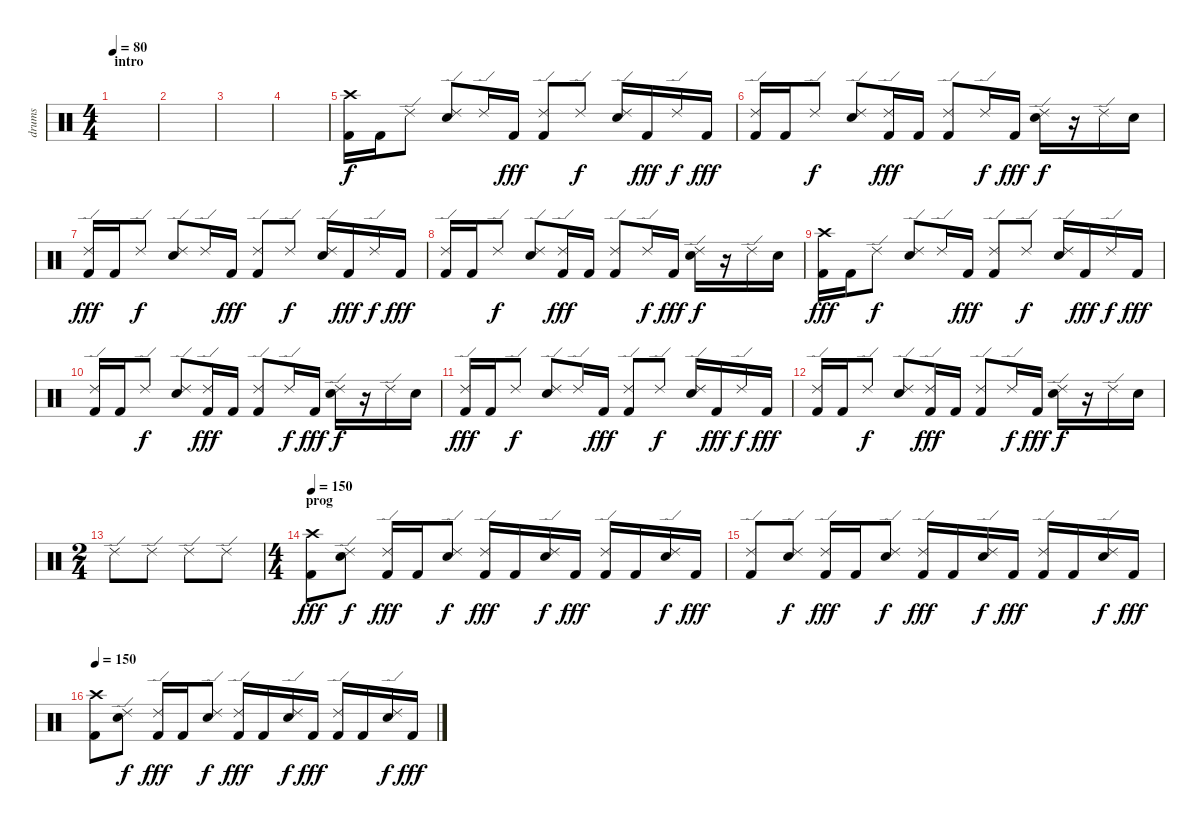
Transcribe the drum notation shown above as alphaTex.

\track ("drums" "drums") {instrument percussion}
\staff {score}
\articulation defaults
\ts (4 4)
\section ("" "intro")
\tempo 80
\clef neutral
\ks c
|
|
|
|
("Crash high (hit)" "Kick (hit) 2").16 "Kick (hit) 2".16 "Ride (edge) 2".8{dy f} ("Ride (edge) 2" "Snare (hit) 2").8 "Ride (edge) 2".16 "Kick (hit) 2".16{dy fff} ("Ride (edge) 2" "Kick (hit) 2").8 "Ride (edge) 2".8{dy f} ("Ride (edge) 2" "Snare (hit) 2").16 "Kick (hit) 2".16{dy fff} "Ride (edge) 2".16{dy f} "Kick (hit) 2".16{dy fff} |
("Ride (edge) 2" "Kick (hit) 2").16 "Kick (hit) 2".16 "Ride (edge) 2".8{dy f} ("Ride (edge) 2" "Snare (hit) 2").8 ("Ride (edge) 2" "Kick (hit) 2").16{dy fff} "Kick (hit) 2".16 ("Ride (edge) 2" "Kick (hit) 2").8 "Ride (edge) 2".16{dy f} "Kick (hit) 2".16{dy fff} ("Ride (edge) 2" "Snare (hit) 2").16{dy f} r.16 "Ride (edge) 2".16 "Snare (hit) 2".16 |
("Ride (edge) 2" "Kick (hit) 2").16{dy fff} "Kick (hit) 2".16 "Ride (edge) 2".8{dy f} ("Ride (edge) 2" "Snare (hit) 2").8 "Ride (edge) 2".16 "Kick (hit) 2".16{dy fff} ("Ride (edge) 2" "Kick (hit) 2").8 "Ride (edge) 2".8{dy f} ("Ride (edge) 2" "Snare (hit) 2").16 "Kick (hit) 2".16{dy fff} "Ride (edge) 2".16{dy f} "Kick (hit) 2".16{dy fff} |
("Ride (edge) 2" "Kick (hit) 2").16 "Kick (hit) 2".16 "Ride (edge) 2".8{dy f} ("Ride (edge) 2" "Snare (hit) 2").8 ("Ride (edge) 2" "Kick (hit) 2").16{dy fff} "Kick (hit) 2".16 ("Ride (edge) 2" "Kick (hit) 2").8 "Ride (edge) 2".16{dy f} "Kick (hit) 2".16{dy fff} ("Ride (edge) 2" "Snare (hit) 2").16{dy f} r.16 "Ride (edge) 2".16 "Snare (hit) 2".16 |
("Crash high (hit)" "Kick (hit) 2").16{dy fff} "Kick (hit) 2".16 "Ride (edge) 2".8{dy f} ("Ride (edge) 2" "Snare (hit) 2").8 "Ride (edge) 2".16 "Kick (hit) 2".16{dy fff} ("Ride (edge) 2" "Kick (hit) 2").8 "Ride (edge) 2".8{dy f} ("Ride (edge) 2" "Snare (hit) 2").16 "Kick (hit) 2".16{dy fff} "Ride (edge) 2".16{dy f} "Kick (hit) 2".16{dy fff} |
("Ride (edge) 2" "Kick (hit) 2").16 "Kick (hit) 2".16 "Ride (edge) 2".8{dy f} ("Ride (edge) 2" "Snare (hit) 2").8 ("Ride (edge) 2" "Kick (hit) 2").16{dy fff} "Kick (hit) 2".16 ("Ride (edge) 2" "Kick (hit) 2").8 "Ride (edge) 2".16{dy f} "Kick (hit) 2".16{dy fff} ("Ride (edge) 2" "Snare (hit) 2").16{dy f} r.16 "Ride (edge) 2".16 "Snare (hit) 2".16 |
("Ride (edge) 2" "Kick (hit) 2").16{dy fff} "Kick (hit) 2".16 "Ride (edge) 2".8{dy f} ("Ride (edge) 2" "Snare (hit) 2").8 "Ride (edge) 2".16 "Kick (hit) 2".16{dy fff} ("Ride (edge) 2" "Kick (hit) 2").8 "Ride (edge) 2".8{dy f} ("Ride (edge) 2" "Snare (hit) 2").16 "Kick (hit) 2".16{dy fff} "Ride (edge) 2".16{dy f} "Kick (hit) 2".16{dy fff} |
("Ride (edge) 2" "Kick (hit) 2").16 "Kick (hit) 2".16 "Ride (edge) 2".8{dy f} ("Ride (edge) 2" "Snare (hit) 2").8 ("Ride (edge) 2" "Kick (hit) 2").16{dy fff} "Kick (hit) 2".16 ("Ride (edge) 2" "Kick (hit) 2").8 "Ride (edge) 2".16{dy f} "Kick (hit) 2".16{dy fff} ("Ride (edge) 2" "Snare (hit) 2").16{dy f} r.16 "Ride (edge) 2".16 "Snare (hit) 2".16 |
\ts (2 4)
"Ride (edge) 2".8 "Ride (edge) 2".8 "Ride (edge) 2".8 "Ride (edge) 2".8 |
\ts (4 4)
\section ("" "prog")
\tempo 150
("Crash high (hit)" "Kick (hit) 2").8{dy fff} ("Ride (edge) 2" "Snare (hit) 2").8{dy f} ("Ride (edge) 2" "Kick (hit) 2").16{dy fff} "Kick (hit) 2".16 ("Ride (edge) 2" "Snare (hit) 2").8{dy f} ("Ride (edge) 2" "Kick (hit) 2").16{dy fff} "Kick (hit) 2".16 ("Ride (edge) 2" "Snare (hit) 2").16{dy f} "Kick (hit) 2".16{dy fff} ("Ride (edge) 2" "Kick (hit) 2").16 "Kick (hit) 2".16 ("Ride (edge) 2" "Snare (hit) 2").16{dy f} "Kick (hit) 2".16{dy fff} |
("Ride (edge) 2" "Kick (hit) 2").8 ("Ride (edge) 2" "Snare (hit) 2").8{dy f} ("Ride (edge) 2" "Kick (hit) 2").16{dy fff} "Kick (hit) 2".16 ("Ride (edge) 2" "Snare (hit) 2").8{dy f} ("Ride (edge) 2" "Kick (hit) 2").16{dy fff} "Kick (hit) 2".16 ("Ride (edge) 2" "Snare (hit) 2").16{dy f} "Kick (hit) 2".16{dy fff} ("Ride (edge) 2" "Kick (hit) 2").16 "Kick (hit) 2".16 ("Ride (edge) 2" "Snare (hit) 2").16{dy f} "Kick (hit) 2".16{dy fff} |
\tempo 150
("Crash high (hit)" "Kick (hit) 2").8 ("Ride (edge) 2" "Snare (hit) 2").8{dy f} ("Ride (edge) 2" "Kick (hit) 2").16{dy fff} "Kick (hit) 2".16 ("Ride (edge) 2" "Snare (hit) 2").8{dy f} ("Ride (edge) 2" "Kick (hit) 2").16{dy fff} "Kick (hit) 2".16 ("Ride (edge) 2" "Snare (hit) 2").16{dy f} "Kick (hit) 2".16{dy fff} ("Ride (edge) 2" "Kick (hit) 2").16 "Kick (hit) 2".16 ("Ride (edge) 2" "Snare (hit) 2").16{dy f} "Kick (hit) 2".16{dy fff}
